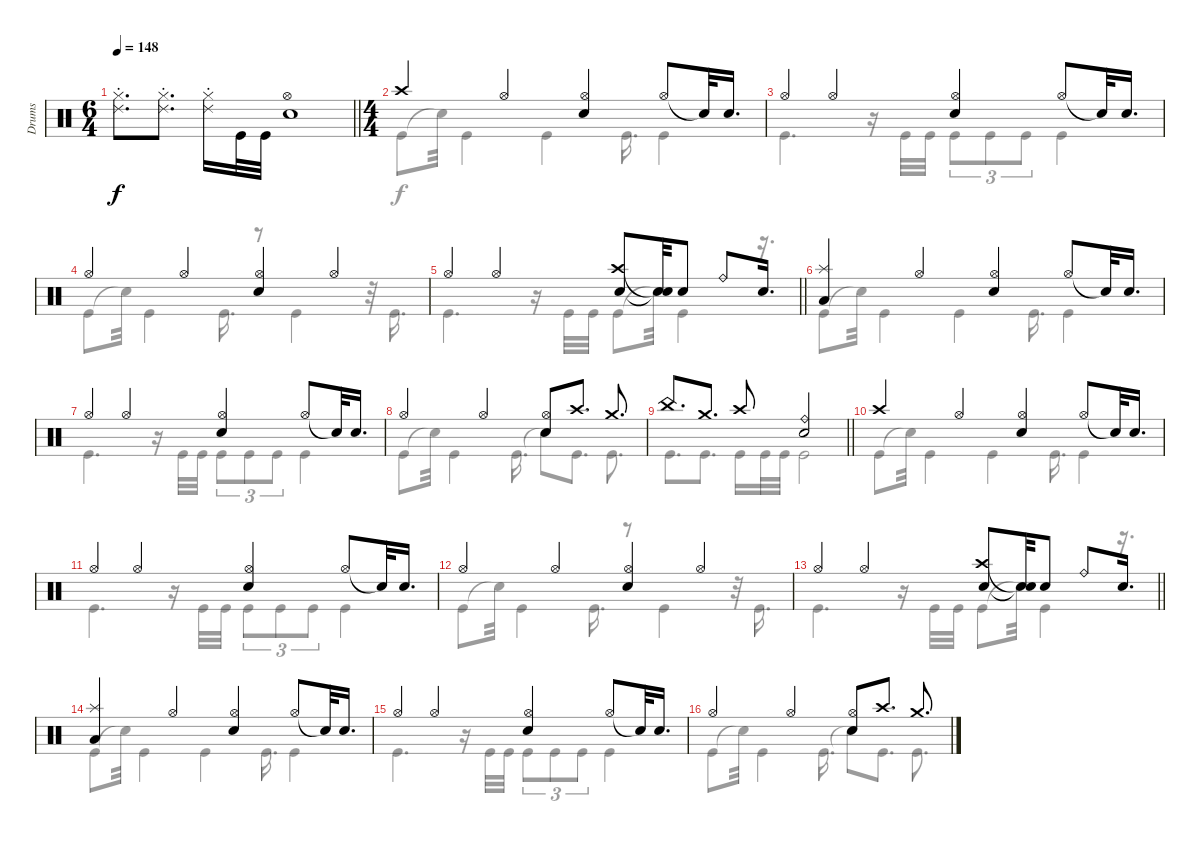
\track ("Drums" "Drums") {instrument percussion}
\staff
\articulation defaults
\voice
\ts (6 4)
\tempo 148
\clef neutral
\barLineRight lightlight
\ks c
("Ride (choke) 2" "Hi-Hat (closed)").8{d dy f} ("Ride (choke) 2" "Hi-Hat (closed)").8{d} ("Ride (choke) 2" "Hi-Hat (closed)").16 "Kick (hit)".32 "Kick (hit)".32 ("Hi-Hat (open)" "Electric Snare (hit)").1{volume 13} |
\ts (4 4)
\section ("" "")
"Crash high (hit)".4 "Hi-Hat (open)".4 ("Hi-Hat (open)" "Electric Snare (hit)").4 "Hi-Hat (open)".8 "Snare (hit)"{t}.32 "Electric Snare (hit)".16{d} |
"Hi-Hat (open)".4 "Hi-Hat (open)".4 ("Hi-Hat (open)" "Electric Snare (hit)").4 "Hi-Hat (open)".8 "Snare (hit)"{t}.32 "Electric Snare (hit)".16{d} |
"Hi-Hat (open)".4 "Hi-Hat (open)".4 ("Hi-Hat (open)" "Electric Snare (hit)").4 "Hi-Hat (open)".4 |
\barLineRight lightlight "Hi-Hat (open)".4 "Hi-Hat (open)".4
("Crash high (hit)" "Electric Snare (hit)").8 ("Snare (hit)"{t} "Snare (hit)"{t}).32 "Electric Snare (hit)".8 "Ride (bell)".8 "Electric Snare (hit)".16{d} |
("Splash (hit)" "Low Floor Tom (hit)").4 "Hi-Hat (open)".4 ("Hi-Hat (open)" "Electric Snare (hit)").4 "Hi-Hat (open)".8 "Snare (hit)"{t}.32 "Electric Snare (hit)".16{d} |
"Hi-Hat (open)".4 "Hi-Hat (open)".4 ("Hi-Hat (open)" "Electric Snare (hit)").4 "Hi-Hat (open)".8 "Snare (hit)"{t}.32 "Electric Snare (hit)".16{d} |
"Hi-Hat (open)".4 "Hi-Hat (open)".4 ("Hi-Hat (open)" "Electric Snare (hit)").8 "Crash high (hit)".8{d} "Crash medium (hit)".8{d} |
\barLineRight lightlight "China (hit)".8{d} "Crash medium (hit)".8{d} "Crash high (hit)".8
("Ride (bell)" "Electric Snare (hit)").2 |
"Crash high (hit)".4 "Hi-Hat (open)".4 ("Hi-Hat (open)" "Electric Snare (hit)").4 "Hi-Hat (open)".8 "Snare (hit)"{t}.32 "Electric Snare (hit)".16{d} |
"Hi-Hat (open)".4 "Hi-Hat (open)".4 ("Hi-Hat (open)" "Electric Snare (hit)").4 "Hi-Hat (open)".8 "Snare (hit)"{t}.32 "Electric Snare (hit)".16{d} |
"Hi-Hat (open)".4 "Hi-Hat (open)".4 ("Hi-Hat (open)" "Electric Snare (hit)").4 "Hi-Hat (open)".4 |
\barLineRight lightlight "Hi-Hat (open)".4 "Hi-Hat (open)".4
("Crash high (hit)" "Electric Snare (hit)").8 ("Snare (hit)"{t} "Snare (hit)"{t}).32 "Electric Snare (hit)".8 "Ride (bell)".8 "Electric Snare (hit)".16{d} |
("Splash (hit)" "Low Floor Tom (hit)").4 "Hi-Hat (open)".4 ("Hi-Hat (open)" "Electric Snare (hit)").4 "Hi-Hat (open)".8 "Snare (hit)"{t}.32 "Electric Snare (hit)".16{d} |
"Hi-Hat (open)".4 "Hi-Hat (open)".4 ("Hi-Hat (open)" "Electric Snare (hit)").4 "Hi-Hat (open)".8 "Snare (hit)"{t}.32 "Electric Snare (hit)".16{d} |
"Hi-Hat (open)".4 "Hi-Hat (open)".4 ("Hi-Hat (open)" "Electric Snare (hit)").8 "Crash high (hit)".8{d} "Crash medium (hit)".8{d}
\voice
\clef neutral
\ottava regular
\simile none
\barLineRight lightlight
\ks c
|
"Kick (hit)".8 "Snare (hit)"{t}.32 "Kick (hit)".4 "Kick (hit)".4 "Kick (hit)".16{d} "Kick (hit)".4 |
"Kick (hit)".4{d} r.16 "Kick (hit)".32 "Kick (hit)".32 "Kick (hit)".8{tu (3 2)} "Kick (hit)".8{tu (3 2)} "Kick (hit)".8{tu (3 2)} "Kick (hit)".4 |
"Kick (hit)".8 "Snare (hit)"{t}.32 "Kick (hit)".4 "Kick (hit)".16{d} r.8 "Kick (hit)".4 r.32 "Kick (hit)".16{d} |
\barLineRight lightlight "Kick (hit)".4{d}
r.16 "Kick (hit)".32 "Kick (hit)".32 "Kick (hit)".8 "Snare (hit)"{t}.32 "Kick (hit)".4 r.16{d} |
"Kick (hit)".8 "Snare (hit)"{t}.32 "Kick (hit)".4 "Kick (hit)".4 "Kick (hit)".16{d} "Kick (hit)".4 |
"Kick (hit)".4{d} r.16 "Kick (hit)".32 "Kick (hit)".32 "Kick (hit)".8{tu (3 2)} "Kick (hit)".8{tu (3 2)} "Kick (hit)".8{tu (3 2)} "Kick (hit)".4 |
"Kick (hit)".8 "Snare (hit)"{t}.32 "Kick (hit)".4 "Kick (hit)".16{d} "Snare (hit)"{t}.8 "Kick (hit)".8{d} "Kick (hit)".8{d} |
\barLineRight lightlight "Kick (hit)".8{d} "Kick (hit)".8{d} "Kick (hit)".16 "Kick (hit)".32 "Kick (hit)".32 "Kick (hit)".2
|
"Kick (hit)".8 "Snare (hit)"{t}.32 "Kick (hit)".4 "Kick (hit)".4 "Kick (hit)".16{d} "Kick (hit)".4 |
"Kick (hit)".4{d} r.16 "Kick (hit)".32 "Kick (hit)".32 "Kick (hit)".8{tu (3 2)} "Kick (hit)".8{tu (3 2)} "Kick (hit)".8{tu (3 2)} "Kick (hit)".4 |
"Kick (hit)".8 "Snare (hit)"{t}.32 "Kick (hit)".4 "Kick (hit)".16{d} r.8 "Kick (hit)".4 r.32 "Kick (hit)".16{d} |
\barLineRight lightlight "Kick (hit)".4{d}
r.16 "Kick (hit)".32 "Kick (hit)".32 "Kick (hit)".8 "Snare (hit)"{t}.32 "Kick (hit)".4 r.16{d} |
"Kick (hit)".8 "Snare (hit)"{t}.32 "Kick (hit)".4 "Kick (hit)".4 "Kick (hit)".16{d} "Kick (hit)".4 |
"Kick (hit)".4{d} r.16 "Kick (hit)".32 "Kick (hit)".32 "Kick (hit)".8{tu (3 2)} "Kick (hit)".8{tu (3 2)} "Kick (hit)".8{tu (3 2)} "Kick (hit)".4 |
"Kick (hit)".8 "Snare (hit)"{t}.32 "Kick (hit)".4 "Kick (hit)".16{d} "Snare (hit)"{t}.8 "Kick (hit)".8{d} "Kick (hit)".8{d}
